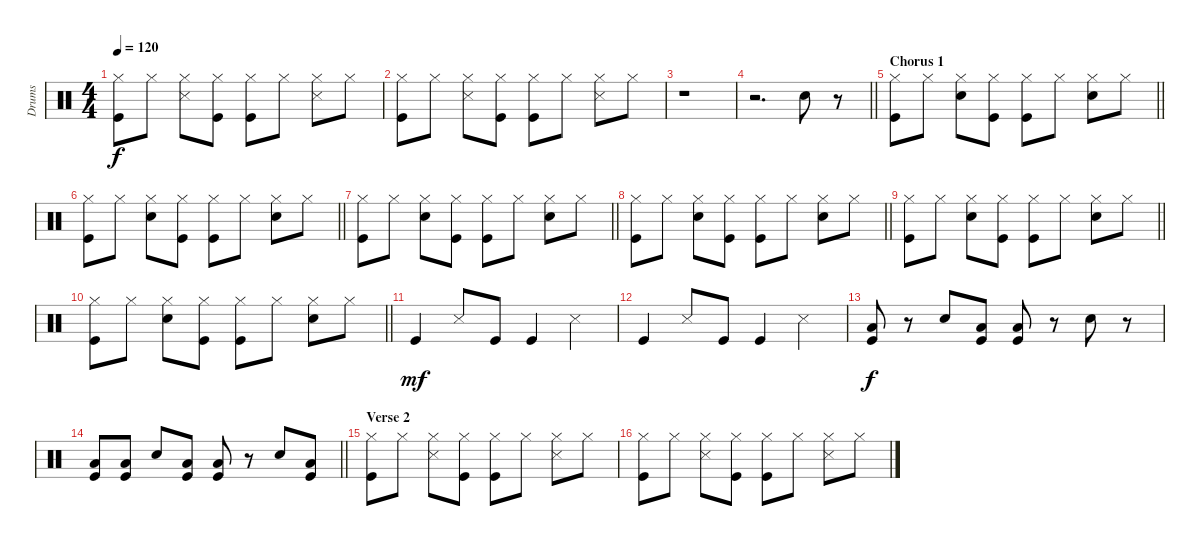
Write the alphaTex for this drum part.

\track ("Drums" "Drums") {instrument percussion}
\staff
\articulation defaults
\ts (4 4)
\tempo 120
\clef neutral
\ks c
("Hi-Hat (closed)" "Kick (hit)").8{dy f} "Hi-Hat (closed)".8 ("Hi-Hat (closed)" "Snare (side stick) 3").8 ("Hi-Hat (closed)" "Kick (hit)").8 ("Hi-Hat (closed)" "Kick (hit)").8 "Hi-Hat (closed)".8 ("Hi-Hat (closed)" "Snare (side stick) 3").8 "Hi-Hat (closed)".8 |
("Hi-Hat (closed)" "Kick (hit)").8 "Hi-Hat (closed)".8 ("Hi-Hat (closed)" "Snare (side stick) 3").8 ("Hi-Hat (closed)" "Kick (hit)").8 ("Hi-Hat (closed)" "Kick (hit)").8 "Hi-Hat (closed)".8 ("Hi-Hat (closed)" "Snare (side stick) 3").8 "Hi-Hat (closed)".8 |
r.1 |
\barLineRight lightlight
r.2{d} "Electric Snare (hit)".8 r.8 |
\section ("" "Chorus 1")
\barLineRight lightlight
("Hi-Hat (closed)" "Kick (hit)").8 "Hi-Hat (closed)".8 ("Hi-Hat (closed)" "Snare (hit) 2").8 ("Hi-Hat (closed)" "Kick (hit)").8 ("Hi-Hat (closed)" "Kick (hit)").8 "Hi-Hat (closed)".8 ("Hi-Hat (closed)" "Snare (hit) 2").8 "Hi-Hat (closed)".8 |
\barLineRight lightlight
("Hi-Hat (closed)" "Kick (hit)").8 "Hi-Hat (closed)".8 ("Hi-Hat (closed)" "Snare (hit) 2").8 ("Hi-Hat (closed)" "Kick (hit)").8 ("Hi-Hat (closed)" "Kick (hit)").8 "Hi-Hat (closed)".8 ("Hi-Hat (closed)" "Snare (hit) 2").8 "Hi-Hat (closed)".8 |
\barLineRight lightlight
("Hi-Hat (closed)" "Kick (hit)").8 "Hi-Hat (closed)".8 ("Hi-Hat (closed)" "Snare (hit) 2").8 ("Hi-Hat (closed)" "Kick (hit)").8 ("Hi-Hat (closed)" "Kick (hit)").8 "Hi-Hat (closed)".8 ("Hi-Hat (closed)" "Snare (hit) 2").8 "Hi-Hat (closed)".8 |
\barLineRight lightlight
("Hi-Hat (closed)" "Kick (hit)").8 "Hi-Hat (closed)".8 ("Hi-Hat (closed)" "Snare (hit) 2").8 ("Hi-Hat (closed)" "Kick (hit)").8 ("Hi-Hat (closed)" "Kick (hit)").8 "Hi-Hat (closed)".8 ("Hi-Hat (closed)" "Snare (hit) 2").8 "Hi-Hat (closed)".8 |
\barLineRight lightlight
("Hi-Hat (closed)" "Kick (hit)").8 "Hi-Hat (closed)".8 ("Hi-Hat (closed)" "Snare (hit) 2").8 ("Hi-Hat (closed)" "Kick (hit)").8 ("Hi-Hat (closed)" "Kick (hit)").8 "Hi-Hat (closed)".8 ("Hi-Hat (closed)" "Snare (hit) 2").8 "Hi-Hat (closed)".8 |
\barLineRight lightlight
("Hi-Hat (closed)" "Kick (hit)").8 "Hi-Hat (closed)".8 ("Hi-Hat (closed)" "Snare (hit) 2").8 ("Hi-Hat (closed)" "Kick (hit)").8 ("Hi-Hat (closed)" "Kick (hit)").8 "Hi-Hat (closed)".8 ("Hi-Hat (closed)" "Snare (hit) 2").8 "Hi-Hat (closed)".8 |
"Kick (hit)".4{dy mf} "Snare (side stick) 3".8 "Kick (hit)".8 "Kick (hit)".4 "Snare (side stick) 3".4 |
"Kick (hit)".4 "Snare (side stick) 3".8 "Kick (hit)".8 "Kick (hit)".4 "Snare (side stick) 3".4 |
("Kick (hit)" "Low Floor Tom (hit)").8{dy f} r.8 "Snare (hit) 2".8 ("Kick (hit)" "Low Floor Tom (hit)").8 ("Kick (hit)" "Low Floor Tom (hit)").8 r.8 "Snare (hit) 2".8 r.8 |
\barLineRight lightlight
("Kick (hit)" "Low Floor Tom (hit)").8 ("Kick (hit)" "Low Floor Tom (hit)").8 "Snare (hit) 2".8 ("Kick (hit)" "Low Floor Tom (hit)").8 ("Kick (hit)" "Low Floor Tom (hit)").8 r.8 "Snare (hit) 2".8 ("Kick (hit)" "Low Floor Tom (hit)").8 |
\section ("" "Verse 2")
("Hi-Hat (closed)" "Kick (hit)").8 "Hi-Hat (closed)".8 ("Hi-Hat (closed)" "Snare (side stick) 3").8 ("Hi-Hat (closed)" "Kick (hit)").8 ("Hi-Hat (closed)" "Kick (hit)").8 "Hi-Hat (closed)".8 ("Hi-Hat (closed)" "Snare (side stick) 3").8 "Hi-Hat (closed)".8 |
("Hi-Hat (closed)" "Kick (hit)").8 "Hi-Hat (closed)".8 ("Hi-Hat (closed)" "Snare (side stick) 3").8 ("Hi-Hat (closed)" "Kick (hit)").8 ("Hi-Hat (closed)" "Kick (hit)").8 "Hi-Hat (closed)".8 ("Hi-Hat (closed)" "Snare (side stick) 3").8 "Hi-Hat (closed)".8
